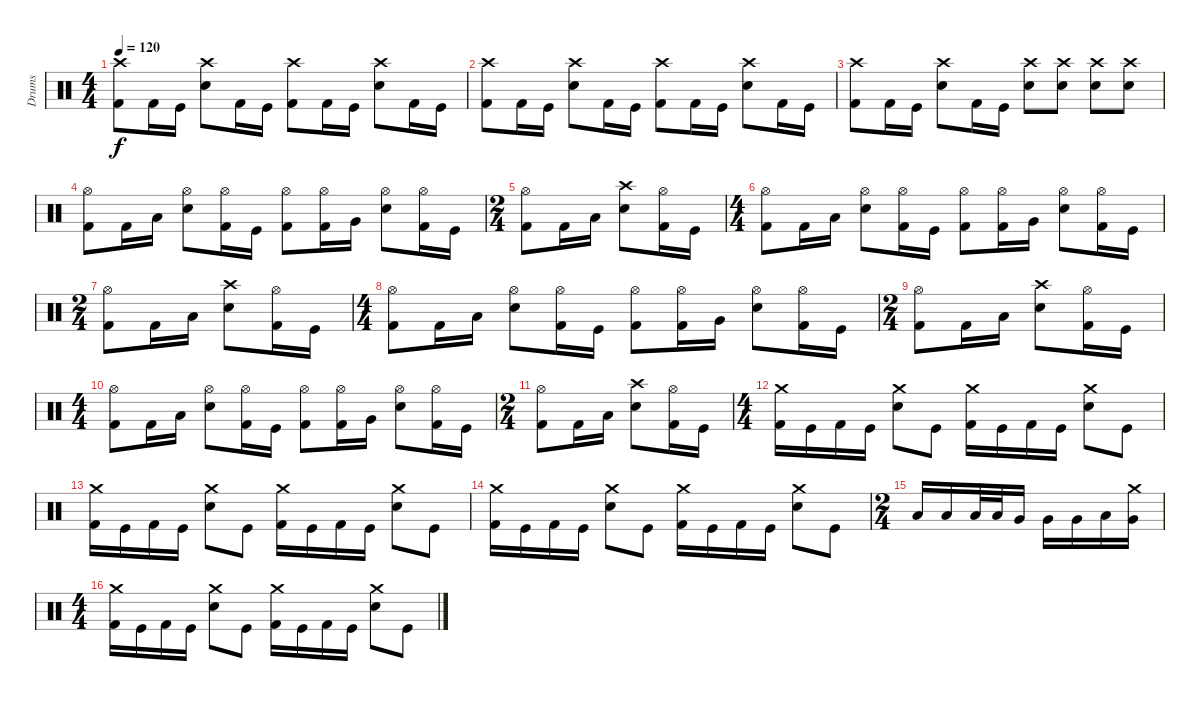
\track ("Drums" "Drums") {instrument percussion}
\staff {score}
\articulation defaults
\ts (4 4)
\tempo 120
\clef neutral
\ks c
("Crash high (hit)" "Kick (hit) 2").8{dy f} "Kick (hit) 2".16 "Kick (hit)".16 ("Crash high (hit)" "Snare (hit) 2").8 "Kick (hit) 2".16 "Kick (hit)".16 ("Crash high (hit)" "Kick (hit) 2").8 "Kick (hit) 2".16 "Kick (hit)".16 ("Crash high (hit)" "Snare (hit) 2").8 "Kick (hit) 2".16 "Kick (hit)".16 |
("Crash high (hit)" "Kick (hit) 2").8 "Kick (hit) 2".16 "Kick (hit)".16 ("Crash high (hit)" "Snare (hit) 2").8 "Kick (hit) 2".16 "Kick (hit)".16 ("Crash high (hit)" "Kick (hit) 2").8 "Kick (hit) 2".16 "Kick (hit)".16 ("Crash high (hit)" "Snare (hit) 2").8 "Kick (hit) 2".16 "Kick (hit)".16 |
("Crash high (hit)" "Kick (hit) 2").8 "Kick (hit) 2".16 "Kick (hit)".16 ("Crash high (hit)" "Snare (hit) 2").8 "Kick (hit) 2".16 "Kick (hit)".16 ("Crash high (hit)" "Snare (hit) 2").8 ("Crash high (hit)" "Snare (hit) 2").8 ("Crash high (hit)" "Snare (hit) 2").8 ("Crash high (hit)" "Snare (hit) 2").8 |
("Hi-Hat (open)" "Kick (hit) 2").8{volume 10} "Kick (hit) 2".16 "Low Tom (hit)".16 ("Hi-Hat (open)" "Snare (hit) 2").8 ("Hi-Hat (open)" "Kick (hit) 2").16 "Kick (hit)".16 ("Hi-Hat (open)" "Kick (hit) 2").8 ("Hi-Hat (open)" "Kick (hit) 2").16 "Very Low Tom (hit)".16 ("Hi-Hat (open)" "Snare (hit) 2").8 ("Hi-Hat (open)" "Kick (hit) 2").16 "Kick (hit)".16 |
\ts (2 4)
("Hi-Hat (open)" "Kick (hit) 2").8 "Kick (hit) 2".16 "Low Tom (hit)".16 ("Crash high (hit)" "Snare (hit) 2").8 ("Hi-Hat (open)" "Kick (hit) 2").16 "Kick (hit)".16 |
\ts (4 4)
("Hi-Hat (open)" "Kick (hit) 2").8 "Kick (hit) 2".16 "Low Tom (hit)".16 ("Hi-Hat (open)" "Snare (hit) 2").8 ("Hi-Hat (open)" "Kick (hit) 2").16 "Kick (hit)".16 ("Hi-Hat (open)" "Kick (hit) 2").8 ("Hi-Hat (open)" "Kick (hit) 2").16 "Very Low Tom (hit)".16 ("Hi-Hat (open)" "Snare (hit) 2").8 ("Hi-Hat (open)" "Kick (hit) 2").16 "Kick (hit)".16 |
\ts (2 4)
("Hi-Hat (open)" "Kick (hit) 2").8 "Kick (hit) 2".16 "Low Tom (hit)".16 ("Crash high (hit)" "Snare (hit) 2").8 ("Hi-Hat (open)" "Kick (hit) 2").16 "Kick (hit)".16 |
\ts (4 4)
("Hi-Hat (open)" "Kick (hit) 2").8{volume 7} "Kick (hit) 2".16 "Low Tom (hit)".16 ("Hi-Hat (open)" "Snare (hit) 2").8 ("Hi-Hat (open)" "Kick (hit) 2").16 "Kick (hit)".16 ("Hi-Hat (open)" "Kick (hit) 2").8 ("Hi-Hat (open)" "Kick (hit) 2").16 "Very Low Tom (hit)".16 ("Hi-Hat (open)" "Snare (hit) 2").8 ("Hi-Hat (open)" "Kick (hit) 2").16 "Kick (hit)".16 |
\ts (2 4)
("Hi-Hat (open)" "Kick (hit) 2").8 "Kick (hit) 2".16 "Low Tom (hit)".16 ("Crash high (hit)" "Snare (hit) 2").8 ("Hi-Hat (open)" "Kick (hit) 2").16 "Kick (hit)".16 |
\ts (4 4)
("Hi-Hat (open)" "Kick (hit) 2").8 "Kick (hit) 2".16 "Low Tom (hit)".16 ("Hi-Hat (open)" "Snare (hit) 2").8 ("Hi-Hat (open)" "Kick (hit) 2").16 "Kick (hit)".16 ("Hi-Hat (open)" "Kick (hit) 2").8 ("Hi-Hat (open)" "Kick (hit) 2").16 "Very Low Tom (hit)".16 ("Hi-Hat (open)" "Snare (hit) 2").8 ("Hi-Hat (open)" "Kick (hit) 2").16 "Kick (hit)".16 |
\ts (2 4)
("Hi-Hat (open)" "Kick (hit) 2").8 "Kick (hit) 2".16 "Low Tom (hit)".16 ("Crash high (hit)" "Snare (hit) 2").8 ("Hi-Hat (open)" "Kick (hit) 2").16 "Kick (hit)".16 |
\ts (4 4)
("Crash medium (hit)" "Kick (hit) 2").16{volume 4} "Kick (hit)".16 "Kick (hit) 2".16 "Kick (hit)".16 ("Crash medium (hit)" "Snare (hit) 2").8 "Kick (hit)".8 ("Crash medium (hit)" "Kick (hit) 2").16 "Kick (hit)".16 "Kick (hit) 2".16 "Kick (hit)".16 ("Crash medium (hit)" "Snare (hit) 2").8 "Kick (hit)".8 |
("Crash medium (hit)" "Kick (hit) 2").16 "Kick (hit)".16 "Kick (hit) 2".16 "Kick (hit)".16 ("Crash medium (hit)" "Snare (hit) 2").8 "Kick (hit)".8 ("Crash medium (hit)" "Kick (hit) 2").16 "Kick (hit)".16 "Kick (hit) 2".16 "Kick (hit)".16 ("Crash medium (hit)" "Snare (hit) 2").8 "Kick (hit)".8 |
("Crash medium (hit)" "Kick (hit) 2").16 "Kick (hit)".16 "Kick (hit) 2".16 "Kick (hit)".16 ("Crash medium (hit)" "Snare (hit) 2").8 "Kick (hit)".8 ("Crash medium (hit)" "Kick (hit) 2").16 "Kick (hit)".16 "Kick (hit) 2".16 "Kick (hit)".16 ("Crash medium (hit)" "Snare (hit) 2").8 "Kick (hit)".8 |
\ts (2 4)
"Low Tom (hit)".16 "Low Tom (hit)".16 "Low Tom (hit)".32 "Low Tom (hit)".32 "Very Low Tom (hit)".16 "Very Low Tom (hit)".16 "Very Low Tom (hit)".16 "Low Floor Tom (hit)".16 ("Crash medium (hit)" "Very Low Tom (hit)").16 |
\ts (4 4)
("Crash medium (hit)" "Kick (hit) 2").16{volume 1} "Kick (hit)".16 "Kick (hit) 2".16 "Kick (hit)".16 ("Crash medium (hit)" "Snare (hit) 2").8 "Kick (hit)".8 ("Crash medium (hit)" "Kick (hit) 2").16 "Kick (hit)".16 "Kick (hit) 2".16 "Kick (hit)".16 ("Crash medium (hit)" "Snare (hit) 2").8 "Kick (hit)".8
